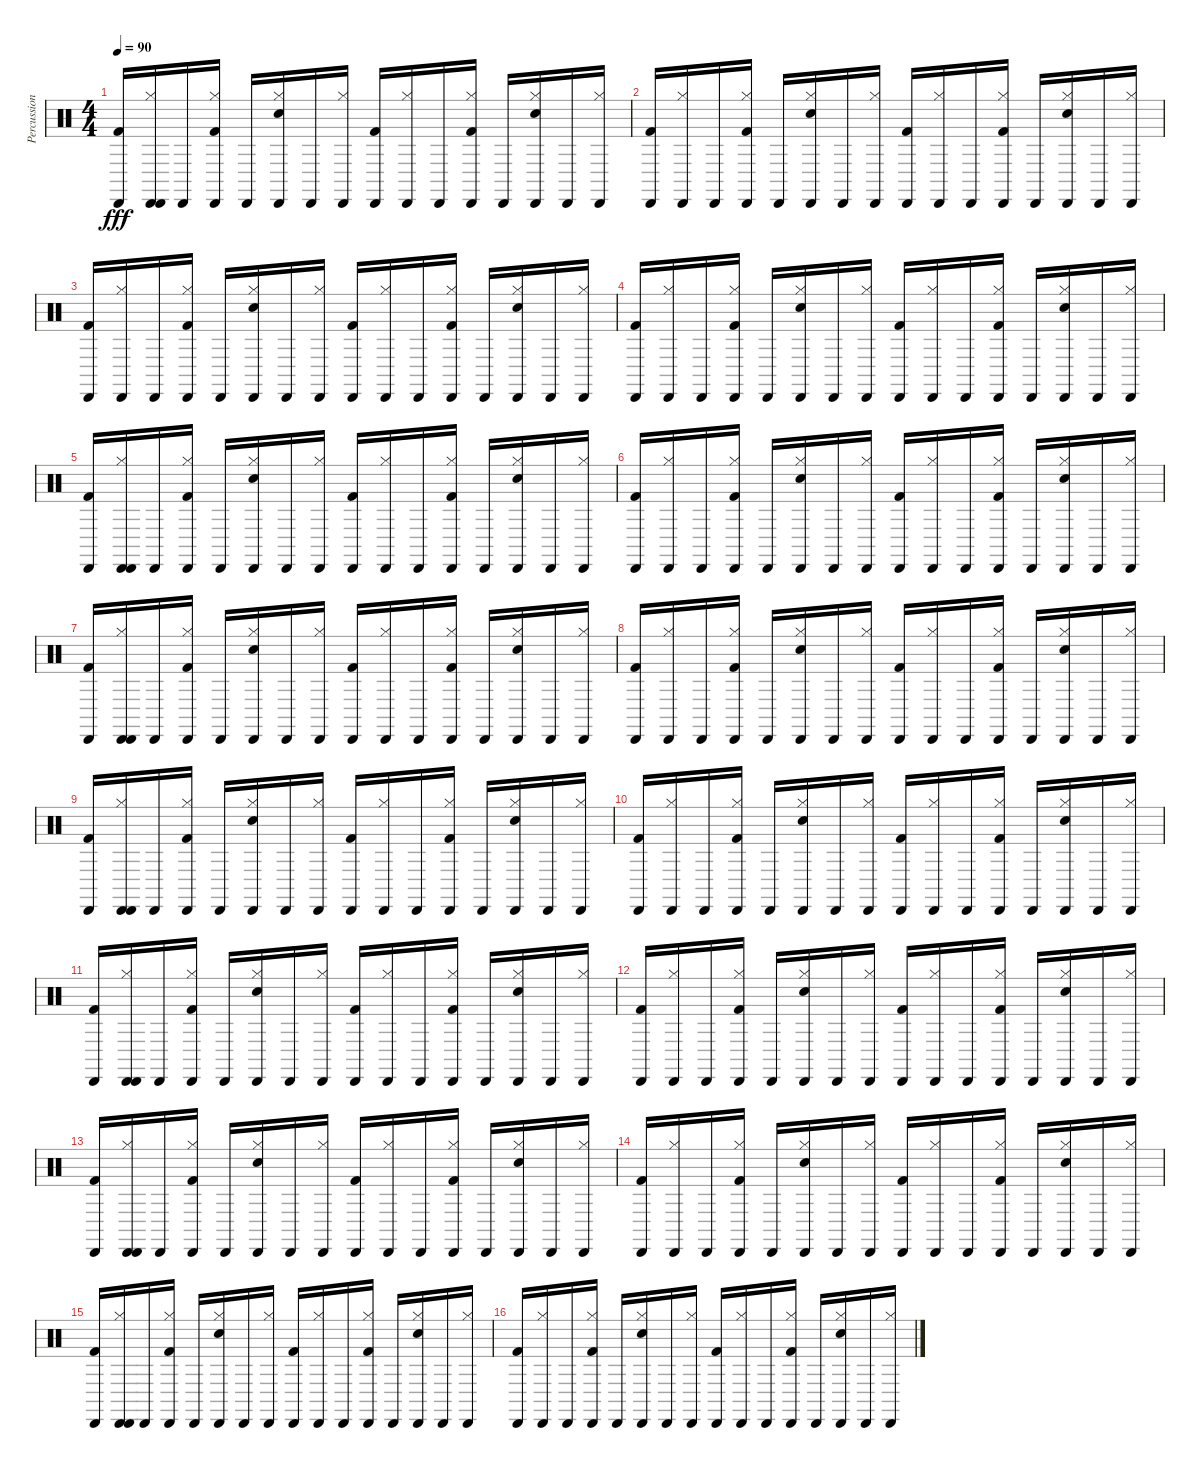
\track ("Percussion" "Percussion") {instrument percussion}
\staff {score}
\articulation defaults
\ts (4 4)
\tempo 90
\clef neutral
\ks c
("Cabasa (hit)" "Kick (hit) 2").16{dy fff} ("Cabasa (hit)" "Cabasa (hit)" "Hi-Hat (closed)").16 "Cabasa (hit)".16 ("Cabasa (hit)" "Hi-Hat (closed)" "Kick (hit) 2").16 "Cabasa (hit)".16 ("Cabasa (hit)" "Hi-Hat (closed)" "Snare (hit) 2").16 "Cabasa (hit)".16 ("Cabasa (hit)" "Hi-Hat (closed)").16 ("Cabasa (hit)" "Kick (hit) 2").16 ("Cabasa (hit)" "Hi-Hat (closed)").16 "Cabasa (hit)".16 ("Cabasa (hit)" "Hi-Hat (closed)" "Kick (hit) 2").16 "Cabasa (hit)".16 ("Cabasa (hit)" "Hi-Hat (closed)" "Snare (hit) 2").16 "Cabasa (hit)".16 ("Cabasa (hit)" "Hi-Hat (closed)").16 |
("Cabasa (hit)" "Kick (hit) 2").16 ("Cabasa (hit)" "Hi-Hat (closed)").16 "Cabasa (hit)".16 ("Cabasa (hit)" "Hi-Hat (closed)" "Kick (hit) 2").16 "Cabasa (hit)".16 ("Cabasa (hit)" "Hi-Hat (closed)" "Snare (hit) 2").16 "Cabasa (hit)".16 ("Cabasa (hit)" "Hi-Hat (closed)").16 ("Cabasa (hit)" "Kick (hit) 2").16 ("Cabasa (hit)" "Hi-Hat (closed)").16 "Cabasa (hit)".16 ("Cabasa (hit)" "Hi-Hat (closed)" "Kick (hit) 2").16 "Cabasa (hit)".16 ("Cabasa (hit)" "Hi-Hat (closed)" "Snare (hit) 2").16 "Cabasa (hit)".16 ("Cabasa (hit)" "Hi-Hat (closed)").16 |
("Cabasa (hit)" "Kick (hit) 2").16 ("Cabasa (hit)" "Hi-Hat (closed)").16 "Cabasa (hit)".16 ("Cabasa (hit)" "Hi-Hat (closed)" "Kick (hit) 2").16 "Cabasa (hit)".16 ("Cabasa (hit)" "Hi-Hat (closed)" "Snare (hit) 2").16 "Cabasa (hit)".16 ("Cabasa (hit)" "Hi-Hat (closed)").16 ("Cabasa (hit)" "Kick (hit) 2").16 ("Cabasa (hit)" "Hi-Hat (closed)").16 "Cabasa (hit)".16 ("Cabasa (hit)" "Hi-Hat (closed)" "Kick (hit) 2").16 "Cabasa (hit)".16 ("Cabasa (hit)" "Hi-Hat (closed)" "Snare (hit) 2").16 "Cabasa (hit)".16 ("Cabasa (hit)" "Hi-Hat (closed)").16 |
("Cabasa (hit)" "Kick (hit) 2").16 ("Cabasa (hit)" "Hi-Hat (closed)").16 "Cabasa (hit)".16 ("Cabasa (hit)" "Hi-Hat (closed)" "Kick (hit) 2").16 "Cabasa (hit)".16 ("Cabasa (hit)" "Hi-Hat (closed)" "Snare (hit) 2").16 "Cabasa (hit)".16 ("Cabasa (hit)" "Hi-Hat (closed)").16 ("Cabasa (hit)" "Kick (hit) 2").16 ("Cabasa (hit)" "Hi-Hat (closed)").16 "Cabasa (hit)".16 ("Cabasa (hit)" "Hi-Hat (closed)" "Kick (hit) 2").16 "Cabasa (hit)".16 ("Cabasa (hit)" "Hi-Hat (closed)" "Snare (hit) 2").16 "Cabasa (hit)".16 ("Cabasa (hit)" "Hi-Hat (closed)").16 |
("Cabasa (hit)" "Kick (hit) 2").16 ("Cabasa (hit)" "Cabasa (hit)" "Hi-Hat (closed)").16 "Cabasa (hit)".16 ("Cabasa (hit)" "Hi-Hat (closed)" "Kick (hit) 2").16 "Cabasa (hit)".16 ("Cabasa (hit)" "Hi-Hat (closed)" "Snare (hit) 2").16 "Cabasa (hit)".16 ("Cabasa (hit)" "Hi-Hat (closed)").16 ("Cabasa (hit)" "Kick (hit) 2").16 ("Cabasa (hit)" "Hi-Hat (closed)").16 "Cabasa (hit)".16 ("Cabasa (hit)" "Hi-Hat (closed)" "Kick (hit) 2").16 "Cabasa (hit)".16 ("Cabasa (hit)" "Hi-Hat (closed)" "Snare (hit) 2").16 "Cabasa (hit)".16 ("Cabasa (hit)" "Hi-Hat (closed)").16 |
("Cabasa (hit)" "Kick (hit) 2").16 ("Cabasa (hit)" "Hi-Hat (closed)").16 "Cabasa (hit)".16 ("Cabasa (hit)" "Hi-Hat (closed)" "Kick (hit) 2").16 "Cabasa (hit)".16 ("Cabasa (hit)" "Hi-Hat (closed)" "Snare (hit) 2").16 "Cabasa (hit)".16 ("Cabasa (hit)" "Hi-Hat (closed)").16 ("Cabasa (hit)" "Kick (hit) 2").16 ("Cabasa (hit)" "Hi-Hat (closed)").16 "Cabasa (hit)".16 ("Cabasa (hit)" "Hi-Hat (closed)" "Kick (hit) 2").16 "Cabasa (hit)".16 ("Cabasa (hit)" "Hi-Hat (closed)" "Snare (hit) 2").16 "Cabasa (hit)".16 ("Cabasa (hit)" "Hi-Hat (closed)").16 |
("Cabasa (hit)" "Kick (hit) 2").16 ("Cabasa (hit)" "Cabasa (hit)" "Hi-Hat (closed)").16 "Cabasa (hit)".16 ("Cabasa (hit)" "Hi-Hat (closed)" "Kick (hit) 2").16 "Cabasa (hit)".16 ("Cabasa (hit)" "Hi-Hat (closed)" "Snare (hit) 2").16 "Cabasa (hit)".16 ("Cabasa (hit)" "Hi-Hat (closed)").16 ("Cabasa (hit)" "Kick (hit) 2").16 ("Cabasa (hit)" "Hi-Hat (closed)").16 "Cabasa (hit)".16 ("Cabasa (hit)" "Hi-Hat (closed)" "Kick (hit) 2").16 "Cabasa (hit)".16 ("Cabasa (hit)" "Hi-Hat (closed)" "Snare (hit) 2").16 "Cabasa (hit)".16 ("Cabasa (hit)" "Hi-Hat (closed)").16 |
("Cabasa (hit)" "Kick (hit) 2").16 ("Cabasa (hit)" "Hi-Hat (closed)").16 "Cabasa (hit)".16 ("Cabasa (hit)" "Hi-Hat (closed)" "Kick (hit) 2").16 "Cabasa (hit)".16 ("Cabasa (hit)" "Hi-Hat (closed)" "Snare (hit) 2").16 "Cabasa (hit)".16 ("Cabasa (hit)" "Hi-Hat (closed)").16 ("Cabasa (hit)" "Kick (hit) 2").16 ("Cabasa (hit)" "Hi-Hat (closed)").16 "Cabasa (hit)".16 ("Cabasa (hit)" "Hi-Hat (closed)" "Kick (hit) 2").16 "Cabasa (hit)".16 ("Cabasa (hit)" "Hi-Hat (closed)" "Snare (hit) 2").16 "Cabasa (hit)".16 ("Cabasa (hit)" "Hi-Hat (closed)").16 |
("Cabasa (hit)" "Kick (hit) 2").16 ("Cabasa (hit)" "Cabasa (hit)" "Hi-Hat (closed)").16 "Cabasa (hit)".16 ("Cabasa (hit)" "Hi-Hat (closed)" "Kick (hit) 2").16 "Cabasa (hit)".16 ("Cabasa (hit)" "Hi-Hat (closed)" "Snare (hit) 2").16 "Cabasa (hit)".16 ("Cabasa (hit)" "Hi-Hat (closed)").16 ("Cabasa (hit)" "Kick (hit) 2").16 ("Cabasa (hit)" "Hi-Hat (closed)").16 "Cabasa (hit)".16 ("Cabasa (hit)" "Hi-Hat (closed)" "Kick (hit) 2").16 "Cabasa (hit)".16 ("Cabasa (hit)" "Hi-Hat (closed)" "Snare (hit) 2").16 "Cabasa (hit)".16 ("Cabasa (hit)" "Hi-Hat (closed)").16 |
("Cabasa (hit)" "Kick (hit) 2").16 ("Cabasa (hit)" "Hi-Hat (closed)").16 "Cabasa (hit)".16 ("Cabasa (hit)" "Hi-Hat (closed)" "Kick (hit) 2").16 "Cabasa (hit)".16 ("Cabasa (hit)" "Hi-Hat (closed)" "Snare (hit) 2").16 "Cabasa (hit)".16 ("Cabasa (hit)" "Hi-Hat (closed)").16 ("Cabasa (hit)" "Kick (hit) 2").16 ("Cabasa (hit)" "Hi-Hat (closed)").16 "Cabasa (hit)".16 ("Cabasa (hit)" "Hi-Hat (closed)" "Kick (hit) 2").16 "Cabasa (hit)".16 ("Cabasa (hit)" "Hi-Hat (closed)" "Snare (hit) 2").16 "Cabasa (hit)".16 ("Cabasa (hit)" "Hi-Hat (closed)").16 |
("Cabasa (hit)" "Kick (hit) 2").16 ("Cabasa (hit)" "Cabasa (hit)" "Hi-Hat (closed)").16 "Cabasa (hit)".16 ("Cabasa (hit)" "Hi-Hat (closed)" "Kick (hit) 2").16 "Cabasa (hit)".16 ("Cabasa (hit)" "Hi-Hat (closed)" "Snare (hit) 2").16 "Cabasa (hit)".16 ("Cabasa (hit)" "Hi-Hat (closed)").16 ("Cabasa (hit)" "Kick (hit) 2").16 ("Cabasa (hit)" "Hi-Hat (closed)").16 "Cabasa (hit)".16 ("Cabasa (hit)" "Hi-Hat (closed)" "Kick (hit) 2").16 "Cabasa (hit)".16 ("Cabasa (hit)" "Hi-Hat (closed)" "Snare (hit) 2").16 "Cabasa (hit)".16 ("Cabasa (hit)" "Hi-Hat (closed)").16 |
("Cabasa (hit)" "Kick (hit) 2").16 ("Cabasa (hit)" "Hi-Hat (closed)").16 "Cabasa (hit)".16 ("Cabasa (hit)" "Hi-Hat (closed)" "Kick (hit) 2").16 "Cabasa (hit)".16 ("Cabasa (hit)" "Hi-Hat (closed)" "Snare (hit) 2").16 "Cabasa (hit)".16 ("Cabasa (hit)" "Hi-Hat (closed)").16 ("Cabasa (hit)" "Kick (hit) 2").16 ("Cabasa (hit)" "Hi-Hat (closed)").16 "Cabasa (hit)".16 ("Cabasa (hit)" "Hi-Hat (closed)" "Kick (hit) 2").16 "Cabasa (hit)".16 ("Cabasa (hit)" "Hi-Hat (closed)" "Snare (hit) 2").16 "Cabasa (hit)".16 ("Cabasa (hit)" "Hi-Hat (closed)").16 |
("Cabasa (hit)" "Kick (hit) 2").16 ("Cabasa (hit)" "Cabasa (hit)" "Hi-Hat (closed)").16 "Cabasa (hit)".16 ("Cabasa (hit)" "Hi-Hat (closed)" "Kick (hit) 2").16 "Cabasa (hit)".16 ("Cabasa (hit)" "Hi-Hat (closed)" "Snare (hit) 2").16 "Cabasa (hit)".16 ("Cabasa (hit)" "Hi-Hat (closed)").16 ("Cabasa (hit)" "Kick (hit) 2").16 ("Cabasa (hit)" "Hi-Hat (closed)").16 "Cabasa (hit)".16 ("Cabasa (hit)" "Hi-Hat (closed)" "Kick (hit) 2").16 "Cabasa (hit)".16 ("Cabasa (hit)" "Hi-Hat (closed)" "Snare (hit) 2").16 "Cabasa (hit)".16 ("Cabasa (hit)" "Hi-Hat (closed)").16 |
("Cabasa (hit)" "Kick (hit) 2").16 ("Cabasa (hit)" "Hi-Hat (closed)").16 "Cabasa (hit)".16 ("Cabasa (hit)" "Hi-Hat (closed)" "Kick (hit) 2").16 "Cabasa (hit)".16 ("Cabasa (hit)" "Hi-Hat (closed)" "Snare (hit) 2").16 "Cabasa (hit)".16 ("Cabasa (hit)" "Hi-Hat (closed)").16 ("Cabasa (hit)" "Kick (hit) 2").16 ("Cabasa (hit)" "Hi-Hat (closed)").16 "Cabasa (hit)".16 ("Cabasa (hit)" "Hi-Hat (closed)" "Kick (hit) 2").16 "Cabasa (hit)".16 ("Cabasa (hit)" "Hi-Hat (closed)" "Snare (hit) 2").16 "Cabasa (hit)".16 ("Cabasa (hit)" "Hi-Hat (closed)").16 |
("Cabasa (hit)" "Kick (hit) 2").16 ("Cabasa (hit)" "Cabasa (hit)" "Hi-Hat (closed)").16 "Cabasa (hit)".16 ("Cabasa (hit)" "Hi-Hat (closed)" "Kick (hit) 2").16 "Cabasa (hit)".16 ("Cabasa (hit)" "Hi-Hat (closed)" "Snare (hit) 2").16 "Cabasa (hit)".16 ("Cabasa (hit)" "Hi-Hat (closed)").16 ("Cabasa (hit)" "Kick (hit) 2").16 ("Cabasa (hit)" "Hi-Hat (closed)").16 "Cabasa (hit)".16 ("Cabasa (hit)" "Hi-Hat (closed)" "Kick (hit) 2").16 "Cabasa (hit)".16 ("Cabasa (hit)" "Hi-Hat (closed)" "Snare (hit) 2").16 "Cabasa (hit)".16 ("Cabasa (hit)" "Hi-Hat (closed)").16 |
("Cabasa (hit)" "Kick (hit) 2").16 ("Cabasa (hit)" "Hi-Hat (closed)").16 "Cabasa (hit)".16 ("Cabasa (hit)" "Hi-Hat (closed)" "Kick (hit) 2").16 "Cabasa (hit)".16 ("Cabasa (hit)" "Hi-Hat (closed)" "Snare (hit) 2").16 "Cabasa (hit)".16 ("Cabasa (hit)" "Hi-Hat (closed)").16 ("Cabasa (hit)" "Kick (hit) 2").16 ("Cabasa (hit)" "Hi-Hat (closed)").16 "Cabasa (hit)".16 ("Cabasa (hit)" "Hi-Hat (closed)" "Kick (hit) 2").16 "Cabasa (hit)".16 ("Cabasa (hit)" "Hi-Hat (closed)" "Snare (hit) 2").16 "Cabasa (hit)".16 ("Cabasa (hit)" "Hi-Hat (closed)").16
